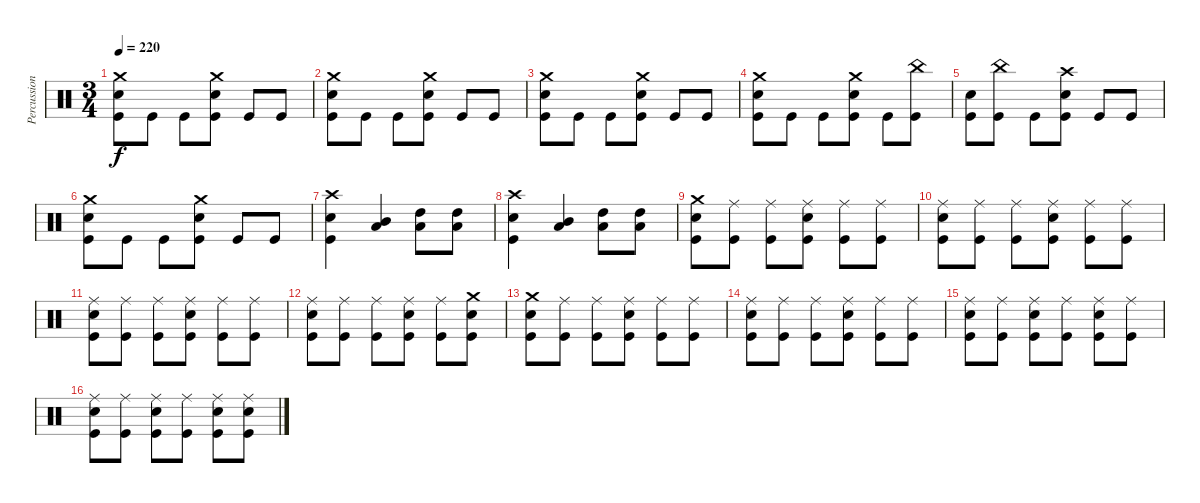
\track ("Percussion" "Percussion") {instrument percussion}
\staff {score}
\articulation defaults
\ts (3 4)
\tempo 220
\clef neutral
\ks c
("Crash medium (hit)" "Electric Snare (hit)" "Kick (hit)").8{dy f} "Kick (hit)".8 "Kick (hit)".8 ("Crash medium (hit)" "Electric Snare (hit)" "Kick (hit)").8 "Kick (hit)".8 "Kick (hit)".8 |
("Crash medium (hit)" "Electric Snare (hit)" "Kick (hit)").8 "Kick (hit)".8 "Kick (hit)".8 ("Crash medium (hit)" "Electric Snare (hit)" "Kick (hit)").8 "Kick (hit)".8 "Kick (hit)".8 |
("Crash medium (hit)" "Electric Snare (hit)" "Kick (hit)").8 "Kick (hit)".8 "Kick (hit)".8 ("Crash medium (hit)" "Electric Snare (hit)" "Kick (hit)").8 "Kick (hit)".8 "Kick (hit)".8 |
("Crash medium (hit)" "Electric Snare (hit)" "Kick (hit)").8 "Kick (hit)".8 "Kick (hit)".8 ("Crash medium (hit)" "Electric Snare (hit)" "Kick (hit)").8 "Kick (hit)".8 ("China (hit)" "Kick (hit)").8 |
("Electric Snare (hit)" "Kick (hit)").8 ("China (hit)" "Kick (hit)").8 "Kick (hit)".8 ("Crash high (hit)" "Electric Snare (hit)" "Kick (hit)").8 "Kick (hit)".8 "Kick (hit)".8 |
("Crash medium (hit)" "Electric Snare (hit)" "Kick (hit)").8 "Kick (hit)".8 "Kick (hit)".8 ("Crash medium (hit)" "Electric Snare (hit)" "Kick (hit)").8 "Kick (hit)".8 "Kick (hit)".8 |
("Crash high (hit)" "Electric Snare (hit)" "Kick (hit)").4 ("Mid Tom (hit)" "Low Floor Tom (hit)").4 ("High Tom (hit)" "Low Floor Tom (hit)").8 ("High Tom (hit)" "Low Floor Tom (hit)").8 |
("Crash high (hit)" "Electric Snare (hit)" "Kick (hit)").4 ("Mid Tom (hit)" "Low Floor Tom (hit)").4 ("High Tom (hit)" "Low Floor Tom (hit)").8 ("High Tom (hit)" "Low Floor Tom (hit)").8 |
("Crash medium (hit)" "Electric Snare (hit)" "Kick (hit)").8 ("Ride (middle)" "Kick (hit)").8 ("Ride (middle)" "Kick (hit)").8 ("Ride (middle)" "Electric Snare (hit)" "Kick (hit)").8 ("Ride (middle)" "Kick (hit)").8 ("Ride (middle)" "Kick (hit)").8 |
("Ride (middle)" "Electric Snare (hit)" "Kick (hit)").8 ("Ride (middle)" "Kick (hit)").8 ("Ride (middle)" "Kick (hit)").8 ("Ride (middle)" "Electric Snare (hit)" "Kick (hit)").8 ("Ride (middle)" "Kick (hit)").8 ("Ride (middle)" "Kick (hit)").8 |
("Ride (middle)" "Electric Snare (hit)" "Kick (hit)").8 ("Ride (middle)" "Kick (hit)").8 ("Ride (middle)" "Kick (hit)").8 ("Ride (middle)" "Electric Snare (hit)" "Kick (hit)").8 ("Ride (middle)" "Kick (hit)").8 ("Ride (middle)" "Kick (hit)").8 |
("Ride (middle)" "Electric Snare (hit)" "Kick (hit)").8 ("Ride (middle)" "Kick (hit)").8 ("Ride (middle)" "Kick (hit)").8 ("Ride (middle)" "Electric Snare (hit)" "Kick (hit)").8 ("Ride (middle)" "Kick (hit)").8 ("Crash medium (hit)" "Electric Snare (hit)" "Kick (hit)").8 |
("Crash medium (hit)" "Electric Snare (hit)" "Kick (hit)").8 ("Ride (middle)" "Kick (hit)").8 ("Ride (middle)" "Kick (hit)").8 ("Ride (middle)" "Electric Snare (hit)" "Kick (hit)").8 ("Ride (middle)" "Kick (hit)").8 ("Ride (middle)" "Kick (hit)").8 |
("Ride (middle)" "Electric Snare (hit)" "Kick (hit)").8 ("Ride (middle)" "Kick (hit)").8 ("Ride (middle)" "Kick (hit)").8 ("Ride (middle)" "Electric Snare (hit)" "Kick (hit)").8 ("Ride (middle)" "Kick (hit)").8 ("Ride (middle)" "Kick (hit)").8 |
("Ride (middle)" "Electric Snare (hit)" "Kick (hit)").8 ("Ride (middle)" "Kick (hit)").8 ("Ride (middle)" "Electric Snare (hit)" "Kick (hit)").8 ("Ride (middle)" "Kick (hit)").8 ("Ride (middle)" "Electric Snare (hit)" "Kick (hit)").8 ("Ride (middle)" "Kick (hit)").8 |
("Ride (middle)" "Electric Snare (hit)" "Kick (hit)").8 ("Ride (middle)" "Kick (hit)").8 ("Ride (middle)" "Electric Snare (hit)" "Kick (hit)").8 ("Ride (middle)" "Kick (hit)").8 ("Ride (middle)" "Electric Snare (hit)" "Kick (hit)").8 ("Ride (middle)" "Electric Snare (hit)" "Kick (hit)").8
